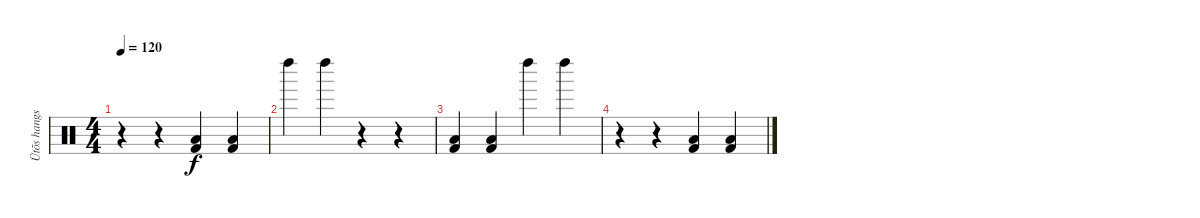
\track ("Ütõs hangszer" "Ütõs hangs") {instrument percussion}
\staff {score}
\articulation defaults
\ts (4 4)
\tempo 120
\clef neutral
\ks c
r.4{dy f} r.4 ("Kick (hit) 2" "Low Floor Tom (hit)").4 ("Kick (hit) 2" "Low Floor Tom (hit)").4 |
"Left Maraca (hit)".4 "Left Maraca (hit)".4 r.4 r.4 |
("Kick (hit) 2" "Low Floor Tom (hit)").4 ("Kick (hit) 2" "Low Floor Tom (hit)").4 "Left Maraca (hit)".4 "Left Maraca (hit)".4 |
r.4 r.4 ("Kick (hit) 2" "Low Floor Tom (hit)").4 ("Kick (hit) 2" "Low Floor Tom (hit)").4
